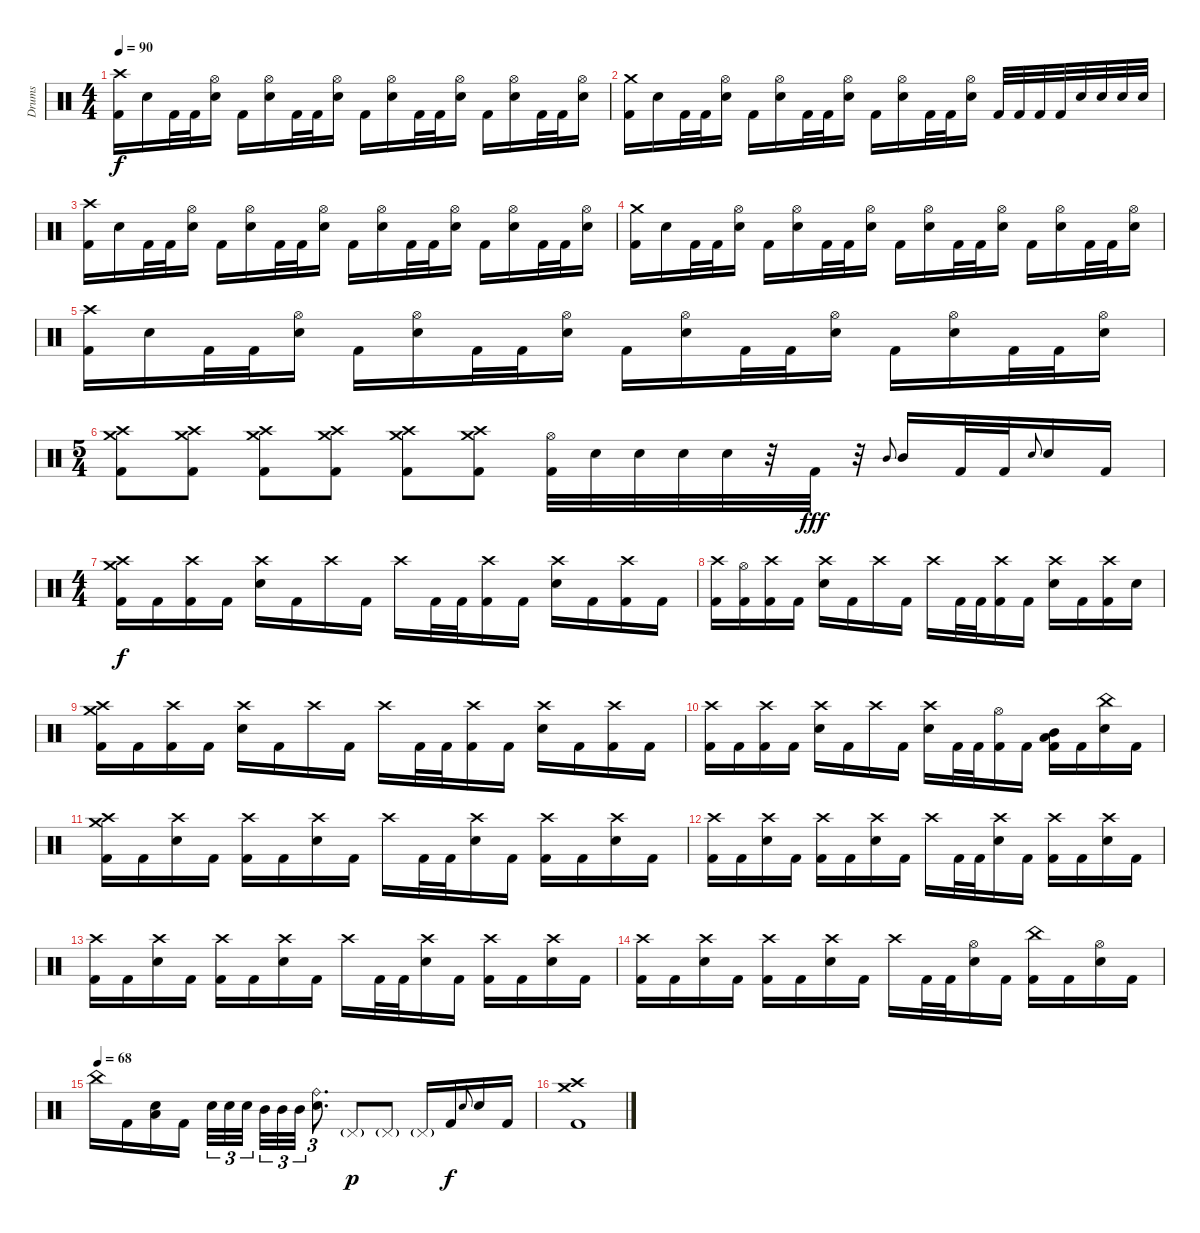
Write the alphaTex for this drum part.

\track ("Drums" "Drums") {instrument percussion}
\staff {score}
\articulation defaults
\ts (4 4)
\tempo 90
\clef neutral
\ks c
("Crash high (hit)" "Kick (hit) 2").16{dy f} "Electric Snare (hit)".16 "Kick (hit) 2".32 "Kick (hit) 2".32 ("Hi-Hat (open)" "Electric Snare (hit)").16 "Kick (hit) 2".16 ("Hi-Hat (open)" "Electric Snare (hit)").16 "Kick (hit) 2".32 "Kick (hit) 2".32 ("Hi-Hat (open)" "Electric Snare (hit)").16 "Kick (hit) 2".16 ("Hi-Hat (open)" "Electric Snare (hit)").16 "Kick (hit) 2".32 "Kick (hit) 2".32 ("Hi-Hat (open)" "Electric Snare (hit)").16 "Kick (hit) 2".16 ("Hi-Hat (open)" "Electric Snare (hit)").16 "Kick (hit) 2".32 "Kick (hit) 2".32 ("Hi-Hat (open)" "Electric Snare (hit)").16 |
("Crash medium (hit)" "Kick (hit) 2").16 "Electric Snare (hit)".16 "Kick (hit) 2".32 "Kick (hit) 2".32 ("Hi-Hat (open)" "Electric Snare (hit)").16 "Kick (hit) 2".16 ("Hi-Hat (open)" "Electric Snare (hit)").16 "Kick (hit) 2".32 "Kick (hit) 2".32 ("Hi-Hat (open)" "Electric Snare (hit)").16 "Kick (hit) 2".16 ("Hi-Hat (open)" "Electric Snare (hit)").16 "Kick (hit) 2".32 "Kick (hit) 2".32 ("Hi-Hat (open)" "Electric Snare (hit)").16 "Kick (hit) 2".32 "Kick (hit) 2".32 "Kick (hit) 2".32 "Kick (hit) 2".32 "Electric Snare (hit)".32 "Electric Snare (hit)".32 "Electric Snare (hit)".32 "Electric Snare (hit)".32 |
("Crash high (hit)" "Kick (hit) 2").16 "Electric Snare (hit)".16 "Kick (hit) 2".32 "Kick (hit) 2".32 ("Hi-Hat (open)" "Electric Snare (hit)").16 "Kick (hit) 2".16 ("Hi-Hat (open)" "Electric Snare (hit)").16 "Kick (hit) 2".32 "Kick (hit) 2".32 ("Hi-Hat (open)" "Electric Snare (hit)").16 "Kick (hit) 2".16 ("Hi-Hat (open)" "Electric Snare (hit)").16 "Kick (hit) 2".32 "Kick (hit) 2".32 ("Hi-Hat (open)" "Electric Snare (hit)").16 "Kick (hit) 2".16 ("Hi-Hat (open)" "Electric Snare (hit)").16 "Kick (hit) 2".32 "Kick (hit) 2".32 ("Hi-Hat (open)" "Electric Snare (hit)").16 |
("Crash medium (hit)" "Kick (hit) 2").16 "Electric Snare (hit)".16 "Kick (hit) 2".32 "Kick (hit) 2".32 ("Hi-Hat (open)" "Electric Snare (hit)").16 "Kick (hit) 2".16 ("Hi-Hat (open)" "Electric Snare (hit)").16 "Kick (hit) 2".32 "Kick (hit) 2".32 ("Hi-Hat (open)" "Electric Snare (hit)").16 "Kick (hit) 2".16 ("Hi-Hat (open)" "Electric Snare (hit)").16 "Kick (hit) 2".32 "Kick (hit) 2".32 ("Hi-Hat (open)" "Electric Snare (hit)").16 "Kick (hit) 2".16 ("Hi-Hat (open)" "Electric Snare (hit)").16 "Kick (hit) 2".32 "Kick (hit) 2".32 ("Hi-Hat (open)" "Electric Snare (hit)").16 |
("Crash high (hit)" "Kick (hit) 2").16 "Electric Snare (hit)".16 "Kick (hit) 2".32 "Kick (hit) 2".32 ("Hi-Hat (open)" "Electric Snare (hit)").16 "Kick (hit) 2".16 ("Hi-Hat (open)" "Electric Snare (hit)").16 "Kick (hit) 2".32 "Kick (hit) 2".32 ("Hi-Hat (open)" "Electric Snare (hit)").16 "Kick (hit) 2".16 ("Hi-Hat (open)" "Electric Snare (hit)").16 "Kick (hit) 2".32 "Kick (hit) 2".32 ("Hi-Hat (open)" "Electric Snare (hit)").16 "Kick (hit) 2".16 ("Hi-Hat (open)" "Electric Snare (hit)").16 "Kick (hit) 2".32 "Kick (hit) 2".32 ("Hi-Hat (open)" "Electric Snare (hit)").16 |
\ts (5 4)
("Crash high (hit)" "Crash medium (hit)" "Kick (hit) 2").8 ("Crash high (hit)" "Crash medium (hit)" "Kick (hit) 2").8 ("Crash high (hit)" "Crash medium (hit)" "Kick (hit) 2").8 ("Crash high (hit)" "Crash medium (hit)" "Kick (hit) 2").8 ("Crash high (hit)" "Crash medium (hit)" "Kick (hit) 2").8 ("Crash high (hit)" "Crash medium (hit)" "Kick (hit) 2").8 ("Hi-Hat (open)" "Kick (hit) 2").32 "Electric Snare (hit)".32 "Electric Snare (hit)".32 "Electric Snare (hit)".32 "Electric Snare (hit)".32 r.32 "Kick (hit) 2".32{dy fff} r.32 "Mid Tom (hit)".8{gr onbeat} "Mid Tom (hit)".16 "Kick (hit) 2".32 "Kick (hit) 2".32 "Electric Snare (hit)".8{gr onbeat} "Electric Snare (hit)".16 "Kick (hit) 2".16 |
\ts (4 4)
("Crash high (hit)" "Crash medium (hit)" "Kick (hit) 2").16{dy f} "Kick (hit) 2".16 ("Crash high (hit)" "Kick (hit) 2").16 "Kick (hit) 2".16 ("Crash high (hit)" "Electric Snare (hit)").16 "Kick (hit) 2".16 "Crash high (hit)".16 "Kick (hit) 2".16 "Crash high (hit)".16 "Kick (hit) 2".32 "Kick (hit) 2".32 ("Crash high (hit)" "Kick (hit) 2").16 "Kick (hit) 2".16 ("Crash high (hit)" "Electric Snare (hit)").16 "Kick (hit) 2".16 ("Crash high (hit)" "Kick (hit) 2").16 "Kick (hit) 2".16 |
("Crash high (hit)" "Kick (hit) 2").16 ("Hi-Hat (open)" "Kick (hit) 2").16 ("Crash high (hit)" "Kick (hit) 2").16 "Kick (hit) 2".16 ("Crash high (hit)" "Electric Snare (hit)").16 "Kick (hit) 2".16 "Crash high (hit)".16 "Kick (hit) 2".16 "Crash high (hit)".16 "Kick (hit) 2".32 "Kick (hit) 2".32 ("Crash high (hit)" "Kick (hit) 2").16 "Kick (hit) 2".16 ("Crash high (hit)" "Electric Snare (hit)").16 "Kick (hit) 2".16 ("Crash high (hit)" "Kick (hit) 2").16 "Electric Snare (hit)".16 |
("Crash high (hit)" "Crash medium (hit)" "Kick (hit) 2").16 "Kick (hit) 2".16 ("Crash high (hit)" "Kick (hit) 2").16 "Kick (hit) 2".16 ("Crash high (hit)" "Electric Snare (hit)").16 "Kick (hit) 2".16 "Crash high (hit)".16 "Kick (hit) 2".16 "Crash high (hit)".16 "Kick (hit) 2".32 "Kick (hit) 2".32 ("Crash high (hit)" "Kick (hit) 2").16 "Kick (hit) 2".16 ("Crash high (hit)" "Electric Snare (hit)").16 "Kick (hit) 2".16 ("Crash high (hit)" "Kick (hit) 2").16 "Kick (hit) 2".16 |
("Crash high (hit)" "Kick (hit) 2").16 "Kick (hit) 2".16 ("Crash high (hit)" "Kick (hit) 2").16 "Kick (hit) 2".16 ("Crash high (hit)" "Electric Snare (hit)").16 "Kick (hit) 2".16 "Crash high (hit)".16 "Kick (hit) 2".16 ("Crash high (hit)" "Electric Snare (hit)").16 "Kick (hit) 2".32 "Kick (hit) 2".32 ("Hi-Hat (open)" "Kick (hit) 2").16 "Kick (hit) 2".16 ("Mid Tom (hit)" "Low Tom (hit)" "Kick (hit) 2").16 "Kick (hit) 2".16 ("China (hit)" "Electric Snare (hit)").16 "Kick (hit) 2".16 |
("Crash high (hit)" "Crash medium (hit)" "Kick (hit) 2").16 "Kick (hit) 2".16 ("Crash high (hit)" "Electric Snare (hit)").16 "Kick (hit) 2".16 ("Crash high (hit)" "Kick (hit) 2").16 "Kick (hit) 2".16 ("Crash high (hit)" "Electric Snare (hit)").16 "Kick (hit) 2".16 "Crash high (hit)".16 "Kick (hit) 2".32 "Kick (hit) 2".32 ("Crash high (hit)" "Electric Snare (hit)").16 "Kick (hit) 2".16 ("Crash high (hit)" "Kick (hit) 2").16 "Kick (hit) 2".16 ("Crash high (hit)" "Electric Snare (hit)").16 "Kick (hit) 2".16 |
("Crash high (hit)" "Kick (hit) 2").16 "Kick (hit) 2".16 ("Crash high (hit)" "Electric Snare (hit)").16 "Kick (hit) 2".16 ("Crash high (hit)" "Kick (hit) 2").16 "Kick (hit) 2".16 ("Crash high (hit)" "Electric Snare (hit)").16 "Kick (hit) 2".16 "Crash high (hit)".16 "Kick (hit) 2".32 "Kick (hit) 2".32 ("Crash high (hit)" "Electric Snare (hit)").16 "Kick (hit) 2".16 ("Crash high (hit)" "Kick (hit) 2").16 "Kick (hit) 2".16 ("Crash high (hit)" "Electric Snare (hit)").16 "Kick (hit) 2".16 |
("Crash high (hit)" "Kick (hit) 2").16 "Kick (hit) 2".16 ("Crash high (hit)" "Electric Snare (hit)").16 "Kick (hit) 2".16 ("Crash high (hit)" "Kick (hit) 2").16 "Kick (hit) 2".16 ("Crash high (hit)" "Electric Snare (hit)").16 "Kick (hit) 2".16 "Crash high (hit)".16 "Kick (hit) 2".32 "Kick (hit) 2".32 ("Crash high (hit)" "Electric Snare (hit)").16 "Kick (hit) 2".16 ("Crash high (hit)" "Kick (hit) 2").16 "Kick (hit) 2".16 ("Crash high (hit)" "Electric Snare (hit)").16 "Kick (hit) 2".16 |
("Crash high (hit)" "Kick (hit) 2").16 "Kick (hit) 2".16 ("Crash high (hit)" "Electric Snare (hit)").16 "Kick (hit) 2".16 ("Crash high (hit)" "Kick (hit) 2").16 "Kick (hit) 2".16 ("Crash high (hit)" "Electric Snare (hit)").16 "Kick (hit) 2".16 "Crash high (hit)".16 "Kick (hit) 2".32 "Kick (hit) 2".32 ("Hi-Hat (open)" "Electric Snare (hit)").16 "Kick (hit) 2".16 ("China (hit)" "Kick (hit) 2").16 "Kick (hit) 2".16 ("Hi-Hat (open)" "Electric Snare (hit)").16 "Kick (hit) 2".16 |
\tempo (68)
"China (hit)".16 "Kick (hit) 2".16 ("Low Tom (hit)" "Electric Snare (hit)").16 "Kick (hit) 2".16 "Electric Snare (hit)".32{tu (3 2)} "Electric Snare (hit)".32{tu (3 2)} "Electric Snare (hit)".32{tu (3 2) beam splitsecondary} "Mid Tom (hit)".32{tu (3 2)} "Mid Tom (hit)".32{tu (3 2)} "Mid Tom (hit)".32{tu (3 2)} ("Ride (bell)" "Metronome (bell)").8{d tu (3 2)} "Pedal Hi-Hat (hit)"{g}.8{dy p} "Pedal Hi-Hat (hit)"{g}.8 "Pedal Hi-Hat (hit)"{g}.16 "Kick (hit) 2".16{dy f} "Electric Snare (hit)".8{gr onbeat} "Electric Snare (hit)".16 "Kick (hit) 2".16 |
("Crash high (hit)" "Crash medium (hit)" "Kick (hit) 2").1
